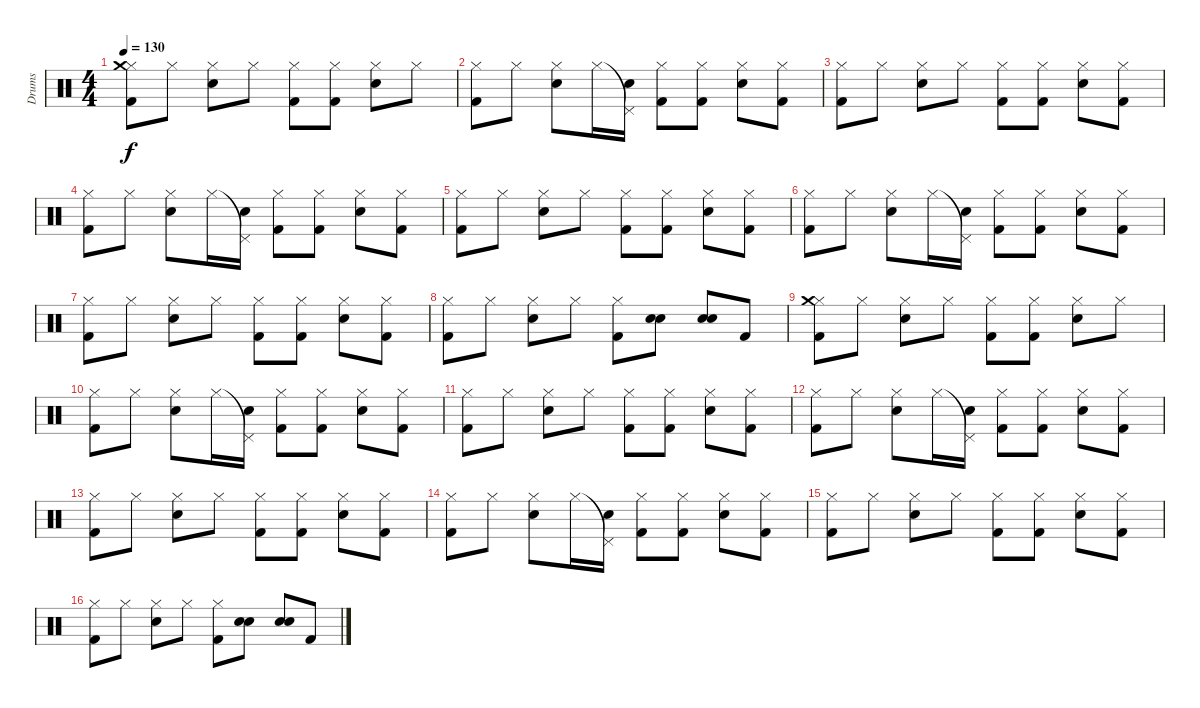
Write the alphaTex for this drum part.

\track ("Drums" "Drums") {instrument percussion}
\staff {score}
\articulation defaults
\ts (4 4)
\tempo 130
\clef neutral
\ks c
("Hi-Hat (closed)" "Kick (hit) 2" "Crash medium (hit)").8{dy f} "Hi-Hat (closed)".8 ("Hi-Hat (closed)" "Electric Snare (hit)").8 "Hi-Hat (closed)".8 ("Hi-Hat (closed)" "Kick (hit) 2").8 ("Hi-Hat (closed)" "Kick (hit) 2").8 ("Hi-Hat (closed)" "Electric Snare (hit)").8 "Hi-Hat (closed)".8 |
("Hi-Hat (closed)" "Kick (hit) 2").8 "Hi-Hat (closed)".8 ("Hi-Hat (closed)" "Electric Snare (hit)").8 "Hi-Hat (closed)".16 ("Pedal Hi-Hat (hit)"{t} "Electric Snare (hit)").16 ("Hi-Hat (closed)" "Kick (hit) 2").8 ("Hi-Hat (closed)" "Kick (hit) 2").8 ("Hi-Hat (closed)" "Electric Snare (hit)").8 ("Hi-Hat (closed)" "Kick (hit) 2").8 |
("Hi-Hat (closed)" "Kick (hit) 2").8 "Hi-Hat (closed)".8 ("Hi-Hat (closed)" "Electric Snare (hit)").8 "Hi-Hat (closed)".8 ("Hi-Hat (closed)" "Kick (hit) 2").8 ("Hi-Hat (closed)" "Kick (hit) 2").8 ("Hi-Hat (closed)" "Electric Snare (hit)").8 ("Hi-Hat (closed)" "Kick (hit) 2").8 |
("Hi-Hat (closed)" "Kick (hit) 2").8 "Hi-Hat (closed)".8 ("Hi-Hat (closed)" "Electric Snare (hit)").8 "Hi-Hat (closed)".16 ("Pedal Hi-Hat (hit)"{t} "Electric Snare (hit)").16 ("Hi-Hat (closed)" "Kick (hit) 2").8 ("Hi-Hat (closed)" "Kick (hit) 2").8 ("Hi-Hat (closed)" "Electric Snare (hit)").8 ("Hi-Hat (closed)" "Kick (hit) 2").8 |
("Hi-Hat (closed)" "Kick (hit) 2").8 "Hi-Hat (closed)".8 ("Hi-Hat (closed)" "Electric Snare (hit)").8 "Hi-Hat (closed)".8 ("Hi-Hat (closed)" "Kick (hit) 2").8 ("Hi-Hat (closed)" "Kick (hit) 2").8 ("Hi-Hat (closed)" "Electric Snare (hit)").8 ("Hi-Hat (closed)" "Kick (hit) 2").8 |
("Hi-Hat (closed)" "Kick (hit) 2").8 "Hi-Hat (closed)".8 ("Hi-Hat (closed)" "Electric Snare (hit)").8 "Hi-Hat (closed)".16 ("Pedal Hi-Hat (hit)"{t} "Electric Snare (hit)").16 ("Hi-Hat (closed)" "Kick (hit) 2").8 ("Hi-Hat (closed)" "Kick (hit) 2").8 ("Hi-Hat (closed)" "Electric Snare (hit)").8 ("Hi-Hat (closed)" "Kick (hit) 2").8 |
("Hi-Hat (closed)" "Kick (hit) 2").8 "Hi-Hat (closed)".8 ("Hi-Hat (closed)" "Electric Snare (hit)").8 "Hi-Hat (closed)".8 ("Hi-Hat (closed)" "Kick (hit) 2").8 ("Hi-Hat (closed)" "Kick (hit) 2").8 ("Hi-Hat (closed)" "Electric Snare (hit)").8 ("Hi-Hat (closed)" "Kick (hit) 2").8 |
("Hi-Hat (closed)" "Kick (hit) 2").8 "Hi-Hat (closed)".8 ("Hi-Hat (closed)" "Electric Snare (hit)").8 "Hi-Hat (closed)".8 ("Hi-Hat (closed)" "Kick (hit) 2").8 ("Electric Snare (hit)" "Electric Snare (hit)").8 ("Electric Snare (hit)" "Electric Snare (hit)").8 "Kick (hit) 2".8 |
("Hi-Hat (closed)" "Kick (hit) 2" "Crash medium (hit)").8 "Hi-Hat (closed)".8 ("Hi-Hat (closed)" "Electric Snare (hit)").8 "Hi-Hat (closed)".8 ("Hi-Hat (closed)" "Kick (hit) 2").8 ("Hi-Hat (closed)" "Kick (hit) 2").8 ("Hi-Hat (closed)" "Electric Snare (hit)").8 "Hi-Hat (closed)".8 |
("Hi-Hat (closed)" "Kick (hit) 2").8 "Hi-Hat (closed)".8 ("Hi-Hat (closed)" "Electric Snare (hit)").8 "Hi-Hat (closed)".16 ("Pedal Hi-Hat (hit)"{t} "Electric Snare (hit)").16 ("Hi-Hat (closed)" "Kick (hit) 2").8 ("Hi-Hat (closed)" "Kick (hit) 2").8 ("Hi-Hat (closed)" "Electric Snare (hit)").8 ("Hi-Hat (closed)" "Kick (hit) 2").8 |
("Hi-Hat (closed)" "Kick (hit) 2").8 "Hi-Hat (closed)".8 ("Hi-Hat (closed)" "Electric Snare (hit)").8 "Hi-Hat (closed)".8 ("Hi-Hat (closed)" "Kick (hit) 2").8 ("Hi-Hat (closed)" "Kick (hit) 2").8 ("Hi-Hat (closed)" "Electric Snare (hit)").8 ("Hi-Hat (closed)" "Kick (hit) 2").8 |
("Hi-Hat (closed)" "Kick (hit) 2").8 "Hi-Hat (closed)".8 ("Hi-Hat (closed)" "Electric Snare (hit)").8 "Hi-Hat (closed)".16 ("Pedal Hi-Hat (hit)"{t} "Electric Snare (hit)").16 ("Hi-Hat (closed)" "Kick (hit) 2").8 ("Hi-Hat (closed)" "Kick (hit) 2").8 ("Hi-Hat (closed)" "Electric Snare (hit)").8 ("Hi-Hat (closed)" "Kick (hit) 2").8 |
("Hi-Hat (closed)" "Kick (hit) 2").8 "Hi-Hat (closed)".8 ("Hi-Hat (closed)" "Electric Snare (hit)").8 "Hi-Hat (closed)".8 ("Hi-Hat (closed)" "Kick (hit) 2").8 ("Hi-Hat (closed)" "Kick (hit) 2").8 ("Hi-Hat (closed)" "Electric Snare (hit)").8 ("Hi-Hat (closed)" "Kick (hit) 2").8 |
("Hi-Hat (closed)" "Kick (hit) 2").8 "Hi-Hat (closed)".8 ("Hi-Hat (closed)" "Electric Snare (hit)").8 "Hi-Hat (closed)".16 ("Pedal Hi-Hat (hit)"{t} "Electric Snare (hit)").16 ("Hi-Hat (closed)" "Kick (hit) 2").8 ("Hi-Hat (closed)" "Kick (hit) 2").8 ("Hi-Hat (closed)" "Electric Snare (hit)").8 ("Hi-Hat (closed)" "Kick (hit) 2").8 |
("Hi-Hat (closed)" "Kick (hit) 2").8 "Hi-Hat (closed)".8 ("Hi-Hat (closed)" "Electric Snare (hit)").8 "Hi-Hat (closed)".8 ("Hi-Hat (closed)" "Kick (hit) 2").8 ("Hi-Hat (closed)" "Kick (hit) 2").8 ("Hi-Hat (closed)" "Electric Snare (hit)").8 ("Hi-Hat (closed)" "Kick (hit) 2").8 |
("Hi-Hat (closed)" "Kick (hit) 2").8 "Hi-Hat (closed)".8 ("Hi-Hat (closed)" "Electric Snare (hit)").8 "Hi-Hat (closed)".8 ("Hi-Hat (closed)" "Kick (hit) 2").8 ("Electric Snare (hit)" "Electric Snare (hit)").8 ("Electric Snare (hit)" "Electric Snare (hit)").8 "Kick (hit) 2".8
